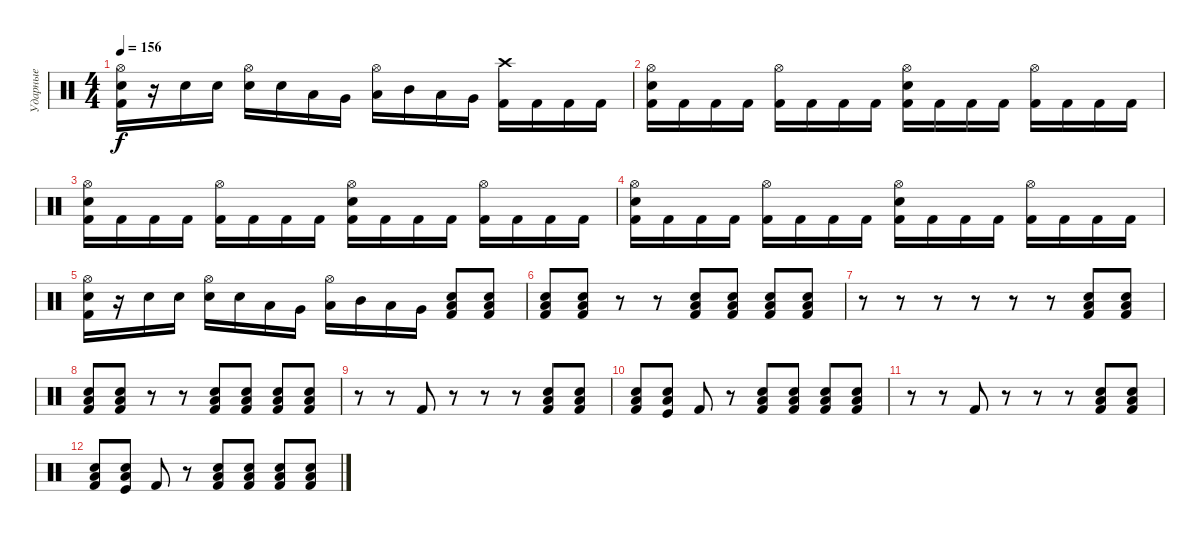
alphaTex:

\track ("Ударные" "Ударные") {instrument percussion}
\staff {score}
\articulation defaults
\ts (4 4)
\tempo 156
\clef neutral
\ks c
("Kick (hit) 2" "Electric Snare (hit)" "Hi-Hat (open)").16{dy f} r.16 "Snare (hit) 2".16 "Electric Snare (hit)".16 ("Snare (hit) 2" "Hi-Hat (open)").16 "Electric Snare (hit)".16 "Low Tom (hit)".16 "Very Low Tom (hit)".16 ("Low Tom (hit)" "Hi-Hat (open)").16 "Mid Tom (hit)".16 "Low Tom (hit)".16 "Very Low Tom (hit)".16 ("Kick (hit) 2" "Crash high (hit)").16 "Kick (hit) 2".16 "Kick (hit) 2".16 "Kick (hit) 2".16 |
("Kick (hit) 2" "Electric Snare (hit)" "Hi-Hat (open)").16 "Kick (hit) 2".16 "Kick (hit) 2".16 "Kick (hit) 2".16 ("Kick (hit) 2" "Hi-Hat (open)").16 "Kick (hit) 2".16 "Kick (hit) 2".16 "Kick (hit) 2".16 ("Kick (hit) 2" "Electric Snare (hit)" "Hi-Hat (open)").16 "Kick (hit) 2".16 "Kick (hit) 2".16 "Kick (hit) 2".16 ("Kick (hit) 2" "Hi-Hat (open)").16 "Kick (hit) 2".16 "Kick (hit) 2".16 "Kick (hit) 2".16 |
("Kick (hit) 2" "Electric Snare (hit)" "Hi-Hat (open)").16 "Kick (hit) 2".16 "Kick (hit) 2".16 "Kick (hit) 2".16 ("Kick (hit) 2" "Hi-Hat (open)").16 "Kick (hit) 2".16 "Kick (hit) 2".16 "Kick (hit) 2".16 ("Kick (hit) 2" "Electric Snare (hit)" "Hi-Hat (open)").16 "Kick (hit) 2".16 "Kick (hit) 2".16 "Kick (hit) 2".16 ("Kick (hit) 2" "Hi-Hat (open)").16 "Kick (hit) 2".16 "Kick (hit) 2".16 "Kick (hit) 2".16 |
("Kick (hit) 2" "Electric Snare (hit)" "Hi-Hat (open)").16 "Kick (hit) 2".16 "Kick (hit) 2".16 "Kick (hit) 2".16 ("Kick (hit) 2" "Hi-Hat (open)").16 "Kick (hit) 2".16 "Kick (hit) 2".16 "Kick (hit) 2".16 ("Kick (hit) 2" "Electric Snare (hit)" "Hi-Hat (open)").16 "Kick (hit) 2".16 "Kick (hit) 2".16 "Kick (hit) 2".16 ("Kick (hit) 2" "Hi-Hat (open)").16 "Kick (hit) 2".16 "Kick (hit) 2".16 "Kick (hit) 2".16 |
("Kick (hit) 2" "Electric Snare (hit)" "Hi-Hat (open)").16 r.16 "Snare (hit) 2".16 "Electric Snare (hit)".16 ("Snare (hit) 2" "Hi-Hat (open)").16 "Electric Snare (hit)".16 "Low Tom (hit)".16 "Very Low Tom (hit)".16 ("Low Tom (hit)" "Hi-Hat (open)").16 "Mid Tom (hit)".16 "Low Tom (hit)".16 "Very Low Tom (hit)".16 ("Kick (hit) 2" "Electric Snare (hit)" "Low Tom (hit)").8 ("Kick (hit) 2" "Electric Snare (hit)" "Low Tom (hit)").8 |
("Kick (hit) 2" "Electric Snare (hit)" "Low Tom (hit)").8 ("Kick (hit) 2" "Electric Snare (hit)" "Low Tom (hit)").8 r.8 r.8 ("Kick (hit) 2" "Electric Snare (hit)" "Low Tom (hit)").8 ("Kick (hit) 2" "Electric Snare (hit)" "Low Tom (hit)").8 ("Kick (hit) 2" "Electric Snare (hit)" "Low Tom (hit)").8 ("Kick (hit) 2" "Electric Snare (hit)" "Low Tom (hit)").8 |
r.8 r.8 r.8 r.8 r.8 r.8 ("Kick (hit) 2" "Electric Snare (hit)" "Low Tom (hit)").8 ("Kick (hit) 2" "Electric Snare (hit)" "Low Tom (hit)").8 |
("Kick (hit) 2" "Electric Snare (hit)" "Low Tom (hit)").8 ("Kick (hit) 2" "Electric Snare (hit)" "Low Tom (hit)").8 r.8 r.8 ("Kick (hit) 2" "Electric Snare (hit)" "Low Tom (hit)").8 ("Kick (hit) 2" "Electric Snare (hit)" "Low Tom (hit)").8 ("Kick (hit) 2" "Electric Snare (hit)" "Low Tom (hit)").8 ("Kick (hit) 2" "Electric Snare (hit)" "Low Tom (hit)").8 |
r.8 r.8 "Kick (hit) 2".8 r.8 r.8 r.8 ("Kick (hit) 2" "Electric Snare (hit)" "Low Tom (hit)").8 ("Kick (hit) 2" "Electric Snare (hit)" "Low Tom (hit)").8 |
("Kick (hit) 2" "Electric Snare (hit)" "Low Tom (hit)").8 ("Kick (hit)" "Electric Snare (hit)" "Low Tom (hit)").8 "Kick (hit) 2".8 r.8 ("Kick (hit) 2" "Electric Snare (hit)" "Low Tom (hit)").8 ("Kick (hit) 2" "Electric Snare (hit)" "Low Tom (hit)").8 ("Kick (hit) 2" "Electric Snare (hit)" "Low Tom (hit)").8 ("Kick (hit) 2" "Electric Snare (hit)" "Low Tom (hit)").8 |
r.8 r.8 "Kick (hit) 2".8 r.8 r.8 r.8 ("Kick (hit) 2" "Electric Snare (hit)" "Low Tom (hit)").8 ("Kick (hit) 2" "Electric Snare (hit)" "Low Tom (hit)").8 |
("Kick (hit) 2" "Electric Snare (hit)" "Low Tom (hit)").8 ("Kick (hit)" "Electric Snare (hit)" "Low Tom (hit)").8 "Kick (hit) 2".8 r.8 ("Kick (hit) 2" "Electric Snare (hit)" "Low Tom (hit)").8 ("Kick (hit) 2" "Electric Snare (hit)" "Low Tom (hit)").8 ("Kick (hit) 2" "Electric Snare (hit)" "Low Tom (hit)").8 ("Kick (hit) 2" "Electric Snare (hit)" "Low Tom (hit)").8
